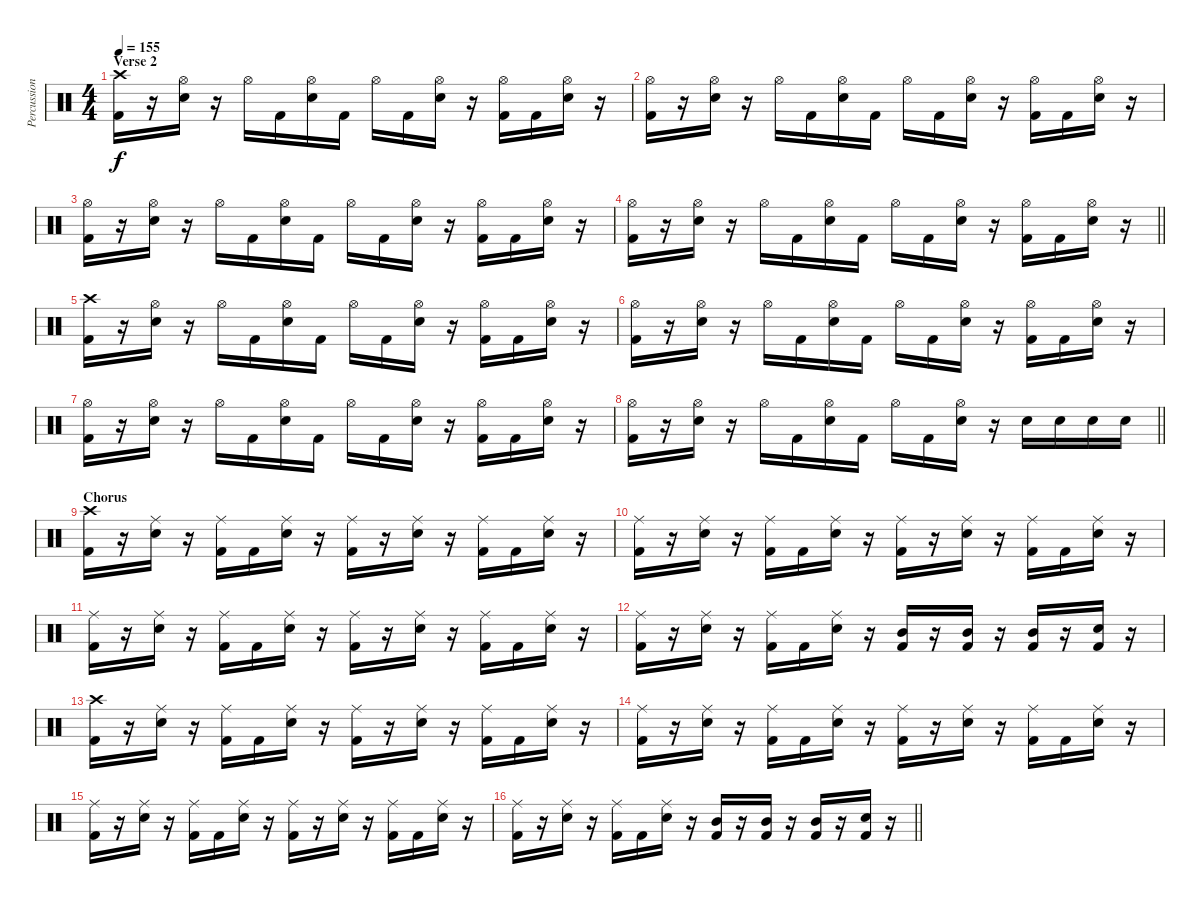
\track ("Percussion" "Percussion") {instrument percussion}
\staff {score}
\articulation defaults
\ts (4 4)
\section ("" "Verse 2")
\tempo 155
\clef neutral
\ks c
("Crash high (hit)" "Kick (hit) 2").16{dy f} r.16 ("Hi-Hat (open)" "Electric Snare (hit)").16 r.16 "Hi-Hat (open)".16 "Kick (hit) 2".16 ("Hi-Hat (open)" "Electric Snare (hit)").16 "Kick (hit) 2".16 "Hi-Hat (open)".16 "Kick (hit) 2".16 ("Hi-Hat (open)" "Electric Snare (hit)").16 r.16 ("Hi-Hat (open)" "Kick (hit) 2").16 "Kick (hit) 2".16 ("Hi-Hat (open)" "Electric Snare (hit)").16 r.16 |
("Hi-Hat (open)" "Kick (hit) 2").16 r.16 ("Hi-Hat (open)" "Electric Snare (hit)").16 r.16 "Hi-Hat (open)".16 "Kick (hit) 2".16 ("Hi-Hat (open)" "Electric Snare (hit)").16 "Kick (hit) 2".16 "Hi-Hat (open)".16 "Kick (hit) 2".16 ("Hi-Hat (open)" "Electric Snare (hit)").16 r.16 ("Hi-Hat (open)" "Kick (hit) 2").16 "Kick (hit) 2".16 ("Hi-Hat (open)" "Electric Snare (hit)").16 r.16 |
("Hi-Hat (open)" "Kick (hit) 2").16 r.16 ("Hi-Hat (open)" "Electric Snare (hit)").16 r.16 "Hi-Hat (open)".16 "Kick (hit) 2".16 ("Hi-Hat (open)" "Electric Snare (hit)").16 "Kick (hit) 2".16 "Hi-Hat (open)".16 "Kick (hit) 2".16 ("Hi-Hat (open)" "Electric Snare (hit)").16 r.16 ("Hi-Hat (open)" "Kick (hit) 2").16 "Kick (hit) 2".16 ("Hi-Hat (open)" "Electric Snare (hit)").16 r.16 |
\barLineRight lightlight
("Hi-Hat (open)" "Kick (hit) 2").16 r.16 ("Hi-Hat (open)" "Electric Snare (hit)").16 r.16 "Hi-Hat (open)".16 "Kick (hit) 2".16 ("Hi-Hat (open)" "Electric Snare (hit)").16 "Kick (hit) 2".16 "Hi-Hat (open)".16 "Kick (hit) 2".16 ("Hi-Hat (open)" "Electric Snare (hit)").16 r.16 ("Hi-Hat (open)" "Kick (hit) 2").16 "Kick (hit) 2".16 ("Hi-Hat (open)" "Electric Snare (hit)").16 r.16 |
("Crash high (hit)" "Kick (hit) 2").16 r.16 ("Hi-Hat (open)" "Electric Snare (hit)").16 r.16 "Hi-Hat (open)".16 "Kick (hit) 2".16 ("Hi-Hat (open)" "Electric Snare (hit)").16 "Kick (hit) 2".16 "Hi-Hat (open)".16 "Kick (hit) 2".16 ("Hi-Hat (open)" "Electric Snare (hit)").16 r.16 ("Hi-Hat (open)" "Kick (hit) 2").16 "Kick (hit) 2".16 ("Hi-Hat (open)" "Electric Snare (hit)").16 r.16 |
("Hi-Hat (open)" "Kick (hit) 2").16 r.16 ("Hi-Hat (open)" "Electric Snare (hit)").16 r.16 "Hi-Hat (open)".16 "Kick (hit) 2".16 ("Hi-Hat (open)" "Electric Snare (hit)").16 "Kick (hit) 2".16 "Hi-Hat (open)".16 "Kick (hit) 2".16 ("Hi-Hat (open)" "Electric Snare (hit)").16 r.16 ("Hi-Hat (open)" "Kick (hit) 2").16 "Kick (hit) 2".16 ("Hi-Hat (open)" "Electric Snare (hit)").16 r.16 |
("Hi-Hat (open)" "Kick (hit) 2").16 r.16 ("Hi-Hat (open)" "Electric Snare (hit)").16 r.16 "Hi-Hat (open)".16 "Kick (hit) 2".16 ("Hi-Hat (open)" "Electric Snare (hit)").16 "Kick (hit) 2".16 "Hi-Hat (open)".16 "Kick (hit) 2".16 ("Hi-Hat (open)" "Electric Snare (hit)").16 r.16 ("Hi-Hat (open)" "Kick (hit) 2").16 "Kick (hit) 2".16 ("Hi-Hat (open)" "Electric Snare (hit)").16 r.16 |
\barLineRight lightlight
("Hi-Hat (open)" "Kick (hit) 2").16 r.16 ("Hi-Hat (open)" "Electric Snare (hit)").16 r.16 "Hi-Hat (open)".16 "Kick (hit) 2".16 ("Hi-Hat (open)" "Electric Snare (hit)").16 "Kick (hit) 2".16 "Hi-Hat (open)".16 "Kick (hit) 2".16 ("Hi-Hat (open)" "Electric Snare (hit)").16 r.16 "Electric Snare (hit)".16 "Electric Snare (hit)".16 "Electric Snare (hit)".16 "Electric Snare (hit)".16 |
\section ("" "Chorus")
("Crash high (hit)" "Kick (hit) 2").16 r.16 ("Ride (middle)" "Electric Snare (hit)").16 r.16 ("Ride (middle)" "Kick (hit) 2").16 "Kick (hit) 2".16 ("Ride (middle)" "Electric Snare (hit)").16 r.16 ("Ride (middle)" "Kick (hit) 2").16 r.16 ("Ride (middle)" "Electric Snare (hit)").16 r.16 ("Ride (middle)" "Kick (hit) 2").16 "Kick (hit) 2".16 ("Ride (middle)" "Electric Snare (hit)").16 r.16 |
("Ride (middle)" "Kick (hit) 2").16 r.16 ("Ride (middle)" "Electric Snare (hit)").16 r.16 ("Ride (middle)" "Kick (hit) 2").16 "Kick (hit) 2".16 ("Ride (middle)" "Electric Snare (hit)").16 r.16 ("Ride (middle)" "Kick (hit) 2").16 r.16 ("Ride (middle)" "Electric Snare (hit)").16 r.16 ("Ride (middle)" "Kick (hit) 2").16 "Kick (hit) 2".16 ("Ride (middle)" "Electric Snare (hit)").16 r.16 |
("Ride (middle)" "Kick (hit) 2").16 r.16 ("Ride (middle)" "Electric Snare (hit)").16 r.16 ("Ride (middle)" "Kick (hit) 2").16 "Kick (hit) 2".16 ("Ride (middle)" "Electric Snare (hit)").16 r.16 ("Ride (middle)" "Kick (hit) 2").16 r.16 ("Ride (middle)" "Electric Snare (hit)").16 r.16 ("Ride (middle)" "Kick (hit) 2").16 "Kick (hit) 2".16 ("Ride (middle)" "Electric Snare (hit)").16 r.16 |
("Ride (middle)" "Kick (hit) 2").16 r.16 ("Ride (middle)" "Electric Snare (hit)").16 r.16 ("Ride (middle)" "Kick (hit) 2").16 "Kick (hit) 2".16 ("Ride (middle)" "Electric Snare (hit)").16 r.16 ("Mid Tom (hit)" "Kick (hit) 2").16 r.16 ("Mid Tom (hit)" "Kick (hit) 2").16 r.16 ("Mid Tom (hit)" "Kick (hit) 2").16 r.16 ("Electric Snare (hit)" "Kick (hit) 2").16 r.16 |
("Crash high (hit)" "Kick (hit) 2").16 r.16 ("Ride (middle)" "Electric Snare (hit)").16 r.16 ("Ride (middle)" "Kick (hit) 2").16 "Kick (hit) 2".16 ("Ride (middle)" "Electric Snare (hit)").16 r.16 ("Ride (middle)" "Kick (hit) 2").16 r.16 ("Ride (middle)" "Electric Snare (hit)").16 r.16 ("Ride (middle)" "Kick (hit) 2").16 "Kick (hit) 2".16 ("Ride (middle)" "Electric Snare (hit)").16 r.16 |
("Ride (middle)" "Kick (hit) 2").16 r.16 ("Ride (middle)" "Electric Snare (hit)").16 r.16 ("Ride (middle)" "Kick (hit) 2").16 "Kick (hit) 2".16 ("Ride (middle)" "Electric Snare (hit)").16 r.16 ("Ride (middle)" "Kick (hit) 2").16 r.16 ("Ride (middle)" "Electric Snare (hit)").16 r.16 ("Ride (middle)" "Kick (hit) 2").16 "Kick (hit) 2".16 ("Ride (middle)" "Electric Snare (hit)").16 r.16 |
("Ride (middle)" "Kick (hit) 2").16 r.16 ("Ride (middle)" "Electric Snare (hit)").16 r.16 ("Ride (middle)" "Kick (hit) 2").16 "Kick (hit) 2".16 ("Ride (middle)" "Electric Snare (hit)").16 r.16 ("Ride (middle)" "Kick (hit) 2").16 r.16 ("Ride (middle)" "Electric Snare (hit)").16 r.16 ("Ride (middle)" "Kick (hit) 2").16 "Kick (hit) 2".16 ("Ride (middle)" "Electric Snare (hit)").16 r.16 |
\barLineRight lightlight
("Ride (middle)" "Kick (hit) 2").16 r.16 ("Ride (middle)" "Electric Snare (hit)").16 r.16 ("Ride (middle)" "Kick (hit) 2").16 "Kick (hit) 2".16 ("Ride (middle)" "Electric Snare (hit)").16 r.16 ("Mid Tom (hit)" "Kick (hit) 2").16 r.16 ("Mid Tom (hit)" "Kick (hit) 2").16 r.16 ("Mid Tom (hit)" "Kick (hit) 2").16 r.16 ("Electric Snare (hit)" "Kick (hit) 2").16 r.16
